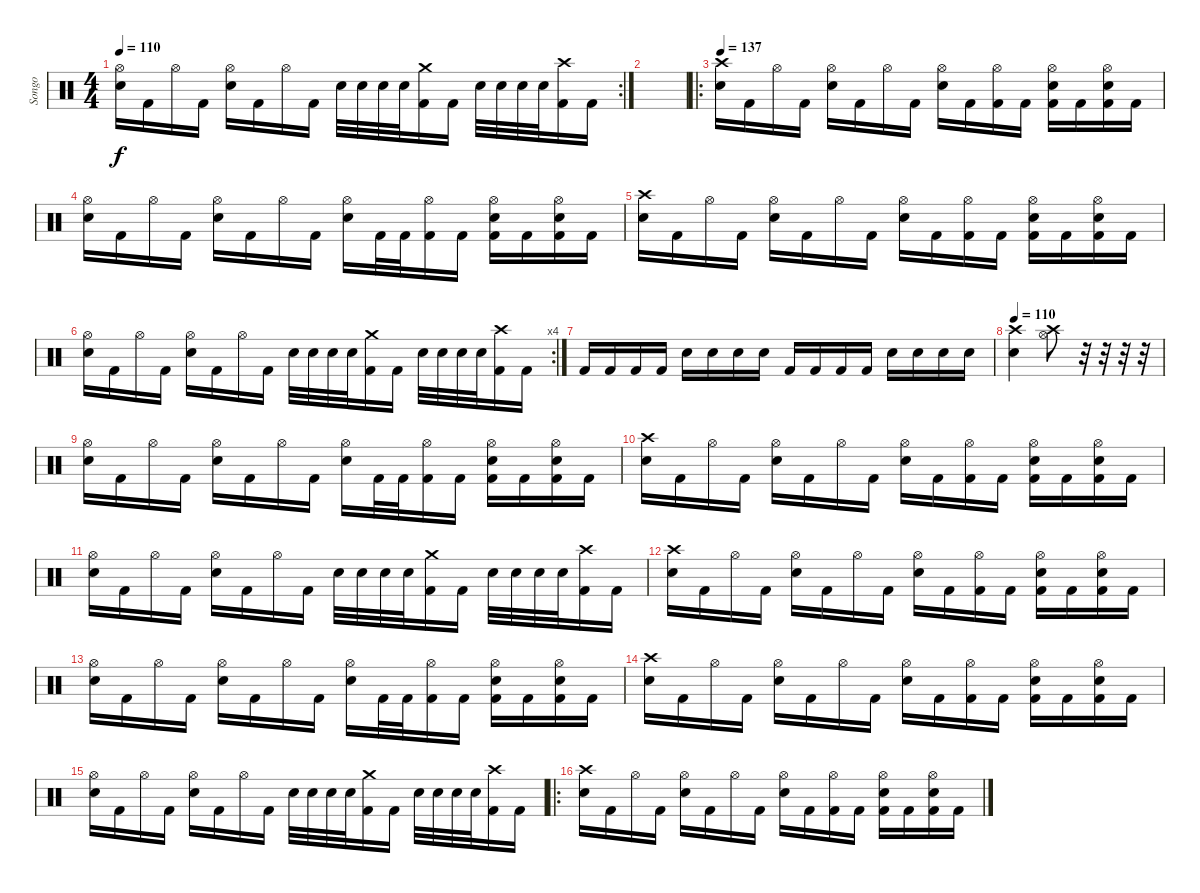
\track ("Songo" "Songo") {instrument percussion}
\staff {score}
\articulation defaults
\rc 2
\ts (4 4)
\tempo 110
\clef neutral
\ks c
("Hi-Hat (open)" "Snare (hit) 2").16{dy f} "Kick (hit) 2".16 "Hi-Hat (open)".16 "Kick (hit) 2".16 ("Hi-Hat (open)" "Snare (hit) 2").16 "Kick (hit) 2".16 "Hi-Hat (open)".16 "Kick (hit) 2".16 "Snare (hit) 2".32 "Snare (hit) 2".32 "Snare (hit) 2".32 "Snare (hit) 2".32 ("Crash medium (hit)" "Kick (hit) 2").16 "Kick (hit) 2".16 "Snare (hit) 2".32 "Snare (hit) 2".32 "Snare (hit) 2".32 "Snare (hit) 2".32 ("Crash high (hit)" "Kick (hit) 2").16 "Kick (hit) 2".16 |
|
\ro
\tempo 137
("Crash high (hit)" "Snare (hit) 2").16 "Kick (hit) 2".16 "Hi-Hat (open)".16 "Kick (hit) 2".16 ("Hi-Hat (open)" "Snare (hit) 2").16 "Kick (hit) 2".16 "Hi-Hat (open)".16 "Kick (hit) 2".16 ("Hi-Hat (open)" "Snare (hit) 2").16 "Kick (hit) 2".16 ("Hi-Hat (open)" "Kick (hit) 2").16 "Kick (hit) 2".16 ("Hi-Hat (open)" "Snare (hit) 2" "Kick (hit) 2").16 "Kick (hit) 2".16 ("Hi-Hat (open)" "Snare (hit) 2" "Kick (hit) 2").16 "Kick (hit) 2".16 |
("Hi-Hat (open)" "Snare (hit) 2").16 "Kick (hit) 2".16 "Hi-Hat (open)".16 "Kick (hit) 2".16 ("Hi-Hat (open)" "Snare (hit) 2").16 "Kick (hit) 2".16 "Hi-Hat (open)".16 "Kick (hit) 2".16 ("Hi-Hat (open)" "Snare (hit) 2").16 "Kick (hit) 2".32 "Kick (hit) 2".32 ("Hi-Hat (open)" "Kick (hit) 2").16 "Kick (hit) 2".16 ("Hi-Hat (open)" "Snare (hit) 2" "Kick (hit) 2").16 "Kick (hit) 2".16 ("Hi-Hat (open)" "Snare (hit) 2" "Kick (hit) 2").16 "Kick (hit) 2".16 |
("Crash high (hit)" "Snare (hit) 2").16 "Kick (hit) 2".16 "Hi-Hat (open)".16 "Kick (hit) 2".16 ("Hi-Hat (open)" "Snare (hit) 2").16 "Kick (hit) 2".16 "Hi-Hat (open)".16 "Kick (hit) 2".16 ("Hi-Hat (open)" "Snare (hit) 2").16 "Kick (hit) 2".16 ("Hi-Hat (open)" "Kick (hit) 2").16 "Kick (hit) 2".16 ("Hi-Hat (open)" "Snare (hit) 2" "Kick (hit) 2").16 "Kick (hit) 2".16 ("Hi-Hat (open)" "Snare (hit) 2" "Kick (hit) 2").16 "Kick (hit) 2".16 |
\rc 4
("Hi-Hat (open)" "Snare (hit) 2").16 "Kick (hit) 2".16 "Hi-Hat (open)".16 "Kick (hit) 2".16 ("Hi-Hat (open)" "Snare (hit) 2").16 "Kick (hit) 2".16 "Hi-Hat (open)".16 "Kick (hit) 2".16 "Snare (hit) 2".32 "Snare (hit) 2".32 "Snare (hit) 2".32 "Snare (hit) 2".32 ("Crash medium (hit)" "Kick (hit) 2").16 "Kick (hit) 2".16 "Snare (hit) 2".32 "Snare (hit) 2".32 "Snare (hit) 2".32 "Snare (hit) 2".32 ("Crash high (hit)" "Kick (hit) 2").16 "Kick (hit) 2".16 |
"Kick (hit) 2".16 "Kick (hit) 2".16 "Kick (hit) 2".16 "Kick (hit) 2".16 "Snare (hit)"{x}.16 "Snare (hit)"{x}.16 "Snare (hit)"{x}.16 "Snare (hit)"{x}.16 "Kick (hit) 2".16 "Kick (hit) 2".16 "Kick (hit) 2".16 "Kick (hit) 2".16 "Snare (hit)"{x}.16 "Snare (hit)"{x}.16 "Snare (hit)"{x}.16 "Snare (hit)"{x}.16 |
\tempo 110
("Snare (hit) 2" "Crash high (hit)").4 ("Crash high (hit)" "Hi-Hat (open)").8 r.32 r.32 r.32 r.32 |
("Hi-Hat (open)" "Snare (hit) 2").16 "Kick (hit) 2".16 "Hi-Hat (open)".16 "Kick (hit) 2".16 ("Hi-Hat (open)" "Snare (hit) 2").16 "Kick (hit) 2".16 "Hi-Hat (open)".16 "Kick (hit) 2".16 ("Hi-Hat (open)" "Snare (hit) 2").16 "Kick (hit) 2".32 "Kick (hit) 2".32 ("Hi-Hat (open)" "Kick (hit) 2").16 "Kick (hit) 2".16 ("Hi-Hat (open)" "Snare (hit) 2" "Kick (hit) 2").16 "Kick (hit) 2".16 ("Hi-Hat (open)" "Snare (hit) 2" "Kick (hit) 2").16 "Kick (hit) 2".16 |
("Crash high (hit)" "Snare (hit) 2").16 "Kick (hit) 2".16 "Hi-Hat (open)".16 "Kick (hit) 2".16 ("Hi-Hat (open)" "Snare (hit) 2").16 "Kick (hit) 2".16 "Hi-Hat (open)".16 "Kick (hit) 2".16 ("Hi-Hat (open)" "Snare (hit) 2").16 "Kick (hit) 2".16 ("Hi-Hat (open)" "Kick (hit) 2").16 "Kick (hit) 2".16 ("Hi-Hat (open)" "Snare (hit) 2" "Kick (hit) 2").16 "Kick (hit) 2".16 ("Hi-Hat (open)" "Snare (hit) 2" "Kick (hit) 2").16 "Kick (hit) 2".16 |
("Hi-Hat (open)" "Snare (hit) 2").16 "Kick (hit) 2".16 "Hi-Hat (open)".16 "Kick (hit) 2".16 ("Hi-Hat (open)" "Snare (hit) 2").16 "Kick (hit) 2".16 "Hi-Hat (open)".16 "Kick (hit) 2".16 "Snare (hit) 2".32 "Snare (hit) 2".32 "Snare (hit) 2".32 "Snare (hit) 2".32 ("Crash medium (hit)" "Kick (hit) 2").16 "Kick (hit) 2".16 "Snare (hit) 2".32 "Snare (hit) 2".32 "Snare (hit) 2".32 "Snare (hit) 2".32 ("Crash high (hit)" "Kick (hit) 2").16 "Kick (hit) 2".16 |
("Crash high (hit)" "Snare (hit) 2").16 "Kick (hit) 2".16 "Hi-Hat (open)".16 "Kick (hit) 2".16 ("Hi-Hat (open)" "Snare (hit) 2").16 "Kick (hit) 2".16 "Hi-Hat (open)".16 "Kick (hit) 2".16 ("Hi-Hat (open)" "Snare (hit) 2").16 "Kick (hit) 2".16 ("Hi-Hat (open)" "Kick (hit) 2").16 "Kick (hit) 2".16 ("Hi-Hat (open)" "Snare (hit) 2" "Kick (hit) 2").16 "Kick (hit) 2".16 ("Hi-Hat (open)" "Snare (hit) 2" "Kick (hit) 2").16 "Kick (hit) 2".16 |
("Hi-Hat (open)" "Snare (hit) 2").16 "Kick (hit) 2".16 "Hi-Hat (open)".16 "Kick (hit) 2".16 ("Hi-Hat (open)" "Snare (hit) 2").16 "Kick (hit) 2".16 "Hi-Hat (open)".16 "Kick (hit) 2".16 ("Hi-Hat (open)" "Snare (hit) 2").16 "Kick (hit) 2".32 "Kick (hit) 2".32 ("Hi-Hat (open)" "Kick (hit) 2").16 "Kick (hit) 2".16 ("Hi-Hat (open)" "Snare (hit) 2" "Kick (hit) 2").16 "Kick (hit) 2".16 ("Hi-Hat (open)" "Snare (hit) 2" "Kick (hit) 2").16 "Kick (hit) 2".16 |
("Crash high (hit)" "Snare (hit) 2").16 "Kick (hit) 2".16 "Hi-Hat (open)".16 "Kick (hit) 2".16 ("Hi-Hat (open)" "Snare (hit) 2").16 "Kick (hit) 2".16 "Hi-Hat (open)".16 "Kick (hit) 2".16 ("Hi-Hat (open)" "Snare (hit) 2").16 "Kick (hit) 2".16 ("Hi-Hat (open)" "Kick (hit) 2").16 "Kick (hit) 2".16 ("Hi-Hat (open)" "Snare (hit) 2" "Kick (hit) 2").16 "Kick (hit) 2".16 ("Hi-Hat (open)" "Snare (hit) 2" "Kick (hit) 2").16 "Kick (hit) 2".16 |
("Hi-Hat (open)" "Snare (hit) 2").16 "Kick (hit) 2".16 "Hi-Hat (open)".16 "Kick (hit) 2".16 ("Hi-Hat (open)" "Snare (hit) 2").16 "Kick (hit) 2".16 "Hi-Hat (open)".16 "Kick (hit) 2".16 "Snare (hit) 2".32 "Snare (hit) 2".32 "Snare (hit) 2".32 "Snare (hit) 2".32 ("Crash medium (hit)" "Kick (hit) 2").16 "Kick (hit) 2".16 "Snare (hit) 2".32 "Snare (hit) 2".32 "Snare (hit) 2".32 "Snare (hit) 2".32 ("Crash high (hit)" "Kick (hit) 2").16 "Kick (hit) 2".16 |
\ro
("Crash high (hit)" "Snare (hit) 2").16 "Kick (hit) 2".16 "Hi-Hat (open)".16 "Kick (hit) 2".16 ("Hi-Hat (open)" "Snare (hit) 2").16 "Kick (hit) 2".16 "Hi-Hat (open)".16 "Kick (hit) 2".16 ("Hi-Hat (open)" "Snare (hit) 2").16 "Kick (hit) 2".16 ("Hi-Hat (open)" "Kick (hit) 2").16 "Kick (hit) 2".16 ("Hi-Hat (open)" "Snare (hit) 2" "Kick (hit) 2").16 "Kick (hit) 2".16 ("Hi-Hat (open)" "Snare (hit) 2" "Kick (hit) 2").16 "Kick (hit) 2".16
